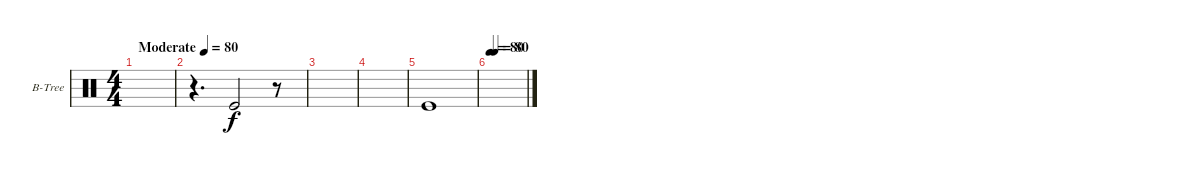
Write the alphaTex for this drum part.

\bracketExtendMode groupsimilarinstruments
\firstSystemTrackNameOrientation horizontal
\otherSystemsTrackNameOrientation horizontal
\track ("Bell Tree" "B-Tree") {instrument percussion}
\staff {score}
\articulation defaults
\ts (4 4)
\beaming (8 2 2 2 2)
\tempo (80 "Moderate")
\clef neutral
\scale
0.474178
\ks c
|
\scale
0.262911 r.4{d} "Kick (hit)".2 r.8 |
\scale
0.262911 |
\scale
0.333333 |
\scale
0.333333 "Kick (hit)".1 |
\tempo 80
\tempo (80 0.13125)
\scale
0.333333 |
\scale
0.333333 |
\scale
0.333333 |
\scale
0.333333 |
\scale
0.333333 |
\scale
0.333333 |
\scale
0.333333 |
\scale
0.333333 |
\scale
0.333333 |
\scale
0.333333 |
\scale
0.333333
